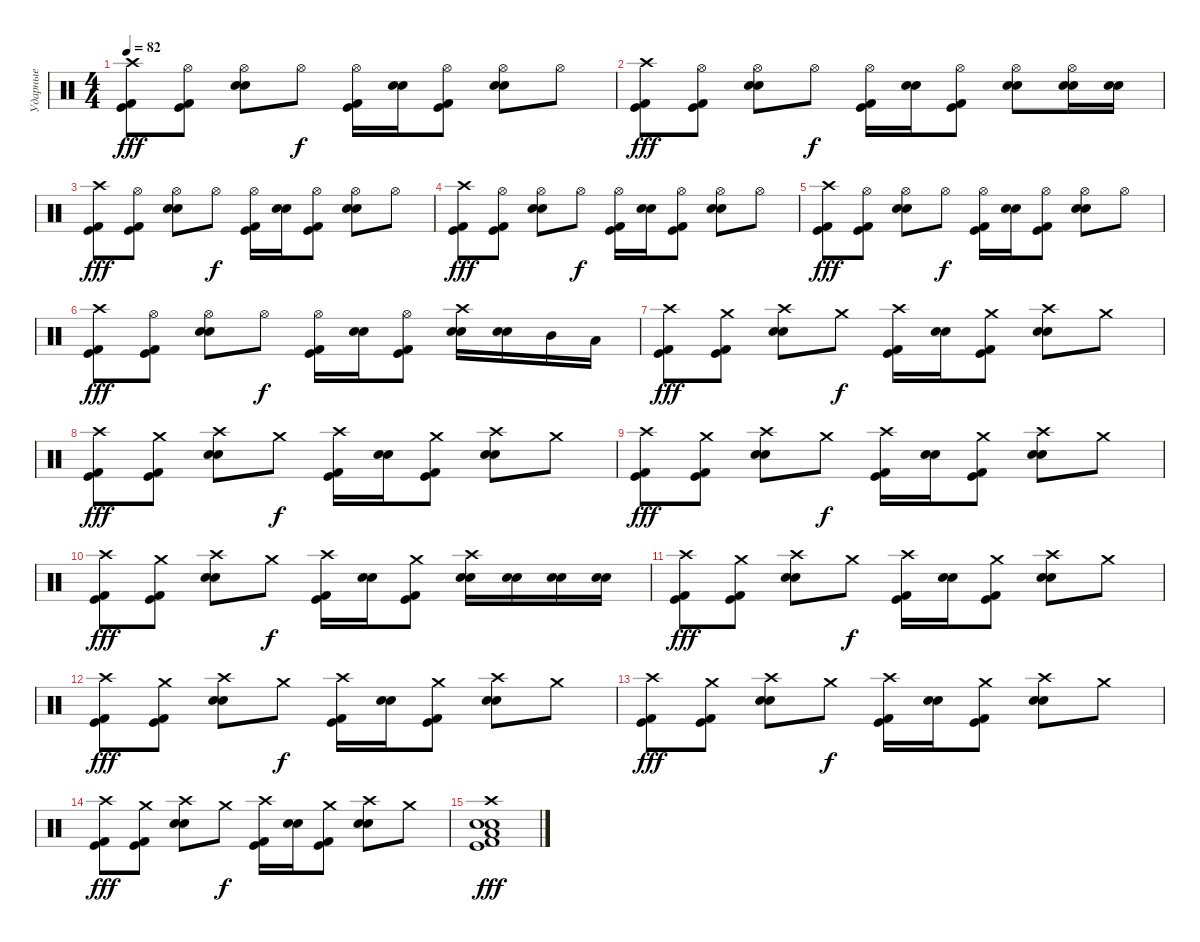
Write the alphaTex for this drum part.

\track ("Ударные" "Ударные") {instrument percussion}
\staff {score}
\articulation defaults
\ts (4 4)
\tempo 82
\clef neutral
\ks c
("Crash high (hit)" "Kick (hit) 2" "Kick (hit)").8{dy fff} ("Hi-Hat (open)" "Kick (hit) 2" "Kick (hit)").8 ("Hi-Hat (open)" "Electric Snare (hit)" "Snare (hit) 2").8 "Hi-Hat (open)".8{dy f} ("Hi-Hat (open)" "Kick (hit)" "Kick (hit) 2").16 ("Electric Snare (hit)" "Snare (hit) 2").16 ("Hi-Hat (open)" "Kick (hit)" "Kick (hit) 2").8 ("Hi-Hat (open)" "Electric Snare (hit)" "Snare (hit) 2").8 "Hi-Hat (open)".8 |
("Crash high (hit)" "Kick (hit) 2" "Kick (hit)").8{dy fff} ("Hi-Hat (open)" "Kick (hit) 2" "Kick (hit)").8 ("Hi-Hat (open)" "Electric Snare (hit)" "Snare (hit) 2").8 "Hi-Hat (open)".8{dy f} ("Hi-Hat (open)" "Kick (hit)" "Kick (hit) 2").16 ("Electric Snare (hit)" "Snare (hit) 2").16 ("Hi-Hat (open)" "Kick (hit)" "Kick (hit) 2").8 ("Hi-Hat (open)" "Electric Snare (hit)" "Snare (hit) 2").8 ("Hi-Hat (open)" "Electric Snare (hit)" "Snare (hit) 2").16 ("Electric Snare (hit)" "Snare (hit) 2").16 |
("Crash high (hit)" "Kick (hit) 2" "Kick (hit)").8{dy fff} ("Hi-Hat (open)" "Kick (hit) 2" "Kick (hit)").8 ("Hi-Hat (open)" "Electric Snare (hit)" "Snare (hit) 2").8 "Hi-Hat (open)".8{dy f} ("Hi-Hat (open)" "Kick (hit)" "Kick (hit) 2").16 ("Electric Snare (hit)" "Snare (hit) 2").16 ("Hi-Hat (open)" "Kick (hit)" "Kick (hit) 2").8 ("Hi-Hat (open)" "Electric Snare (hit)" "Snare (hit) 2").8 "Hi-Hat (open)".8 |
("Crash high (hit)" "Kick (hit) 2" "Kick (hit)").8{dy fff} ("Hi-Hat (open)" "Kick (hit) 2" "Kick (hit)").8 ("Hi-Hat (open)" "Electric Snare (hit)" "Snare (hit) 2").8 "Hi-Hat (open)".8{dy f} ("Hi-Hat (open)" "Kick (hit)" "Kick (hit) 2").16 ("Electric Snare (hit)" "Snare (hit) 2").16 ("Hi-Hat (open)" "Kick (hit)" "Kick (hit) 2").8 ("Hi-Hat (open)" "Electric Snare (hit)" "Snare (hit) 2").8 "Hi-Hat (open)".8 |
("Crash high (hit)" "Kick (hit) 2" "Kick (hit)").8{dy fff} ("Hi-Hat (open)" "Kick (hit) 2" "Kick (hit)").8 ("Hi-Hat (open)" "Electric Snare (hit)" "Snare (hit) 2").8 "Hi-Hat (open)".8{dy f} ("Hi-Hat (open)" "Kick (hit)" "Kick (hit) 2").16 ("Electric Snare (hit)" "Snare (hit) 2").16 ("Hi-Hat (open)" "Kick (hit)" "Kick (hit) 2").8 ("Hi-Hat (open)" "Electric Snare (hit)" "Snare (hit) 2").8 "Hi-Hat (open)".8 |
("Crash high (hit)" "Kick (hit) 2" "Kick (hit)").8{dy fff} ("Hi-Hat (open)" "Kick (hit) 2" "Kick (hit)").8 ("Hi-Hat (open)" "Electric Snare (hit)" "Snare (hit) 2").8 "Hi-Hat (open)".8{dy f} ("Hi-Hat (open)" "Kick (hit)" "Kick (hit) 2").16 ("Electric Snare (hit)" "Snare (hit) 2").16 ("Hi-Hat (open)" "Kick (hit)" "Kick (hit) 2").8 ("Snare (hit) 2" "Electric Snare (hit)" "Crash high (hit)").16 ("Snare (hit) 2" "Electric Snare (hit)").16 "Mid Tom (hit)".16 "Low Tom (hit)".16 |
("Crash high (hit)" "Kick (hit) 2" "Kick (hit)").8{dy fff} ("Crash medium (hit)" "Kick (hit) 2" "Kick (hit)").8 ("Crash high (hit)" "Electric Snare (hit)" "Snare (hit) 2").8 "Crash medium (hit)".8{dy f} ("Crash high (hit)" "Kick (hit)" "Kick (hit) 2").16 ("Electric Snare (hit)" "Snare (hit) 2").16 ("Crash medium (hit)" "Kick (hit)" "Kick (hit) 2").8 ("Crash high (hit)" "Electric Snare (hit)" "Snare (hit) 2").8 "Crash medium (hit)".8 |
("Crash high (hit)" "Kick (hit) 2" "Kick (hit)").8{dy fff} ("Crash medium (hit)" "Kick (hit) 2" "Kick (hit)").8 ("Crash high (hit)" "Electric Snare (hit)" "Snare (hit) 2").8 "Crash medium (hit)".8{dy f} ("Crash high (hit)" "Kick (hit)" "Kick (hit) 2").16 ("Electric Snare (hit)" "Snare (hit) 2").16 ("Crash medium (hit)" "Kick (hit)" "Kick (hit) 2").8 ("Crash high (hit)" "Electric Snare (hit)" "Snare (hit) 2").8 "Crash medium (hit)".8 |
("Crash high (hit)" "Kick (hit) 2" "Kick (hit)").8{dy fff} ("Crash medium (hit)" "Kick (hit) 2" "Kick (hit)").8 ("Crash high (hit)" "Electric Snare (hit)" "Snare (hit) 2").8 "Crash medium (hit)".8{dy f} ("Crash high (hit)" "Kick (hit)" "Kick (hit) 2").16 ("Electric Snare (hit)" "Snare (hit) 2").16 ("Crash medium (hit)" "Kick (hit)" "Kick (hit) 2").8 ("Crash high (hit)" "Electric Snare (hit)" "Snare (hit) 2").8 "Crash medium (hit)".8 |
("Crash high (hit)" "Kick (hit) 2" "Kick (hit)").8{dy fff} ("Crash medium (hit)" "Kick (hit) 2" "Kick (hit)").8 ("Crash high (hit)" "Electric Snare (hit)" "Snare (hit) 2").8 "Crash medium (hit)".8{dy f} ("Crash high (hit)" "Kick (hit)" "Kick (hit) 2").16 ("Electric Snare (hit)" "Snare (hit) 2").16 ("Crash medium (hit)" "Kick (hit)" "Kick (hit) 2").8 ("Electric Snare (hit)" "Snare (hit) 2" "Crash high (hit)").16 ("Electric Snare (hit)" "Snare (hit) 2").16 ("Electric Snare (hit)" "Snare (hit) 2").16 ("Electric Snare (hit)" "Snare (hit) 2").16 |
("Crash high (hit)" "Kick (hit) 2" "Kick (hit)").8{dy fff} ("Crash medium (hit)" "Kick (hit) 2" "Kick (hit)").8 ("Crash high (hit)" "Electric Snare (hit)" "Snare (hit) 2").8 "Crash medium (hit)".8{dy f} ("Crash high (hit)" "Kick (hit)" "Kick (hit) 2").16 ("Electric Snare (hit)" "Snare (hit) 2").16 ("Crash medium (hit)" "Kick (hit)" "Kick (hit) 2").8 ("Crash high (hit)" "Electric Snare (hit)" "Snare (hit) 2").8 "Crash medium (hit)".8 |
("Crash high (hit)" "Kick (hit) 2" "Kick (hit)").8{dy fff} ("Crash medium (hit)" "Kick (hit) 2" "Kick (hit)").8 ("Crash high (hit)" "Electric Snare (hit)" "Snare (hit) 2").8 "Crash medium (hit)".8{dy f} ("Crash high (hit)" "Kick (hit)" "Kick (hit) 2").16 ("Electric Snare (hit)" "Snare (hit) 2").16 ("Crash medium (hit)" "Kick (hit)" "Kick (hit) 2").8 ("Crash high (hit)" "Electric Snare (hit)" "Snare (hit) 2").8 "Crash medium (hit)".8 |
("Crash high (hit)" "Kick (hit) 2" "Kick (hit)").8{dy fff} ("Crash medium (hit)" "Kick (hit) 2" "Kick (hit)").8 ("Crash high (hit)" "Electric Snare (hit)" "Snare (hit) 2").8 "Crash medium (hit)".8{dy f} ("Crash high (hit)" "Kick (hit)" "Kick (hit) 2").16 ("Electric Snare (hit)" "Snare (hit) 2").16 ("Crash medium (hit)" "Kick (hit)" "Kick (hit) 2").8 ("Crash high (hit)" "Electric Snare (hit)" "Snare (hit) 2").8 "Crash medium (hit)".8 |
("Crash high (hit)" "Kick (hit) 2" "Kick (hit)").8{dy fff} ("Crash medium (hit)" "Kick (hit) 2" "Kick (hit)").8 ("Crash high (hit)" "Electric Snare (hit)" "Snare (hit) 2").8 "Crash medium (hit)".8{dy f} ("Crash high (hit)" "Kick (hit)" "Kick (hit) 2").16 ("Electric Snare (hit)" "Snare (hit) 2").16 ("Crash medium (hit)" "Kick (hit)" "Kick (hit) 2").8 ("Crash high (hit)" "Electric Snare (hit)" "Snare (hit) 2").8 "Crash medium (hit)".8 |
("Crash high (hit)" "Electric Snare (hit)" "Snare (hit) 2" "Kick (hit) 2" "Kick (hit)" "Low Tom (hit)").1{dy fff}
